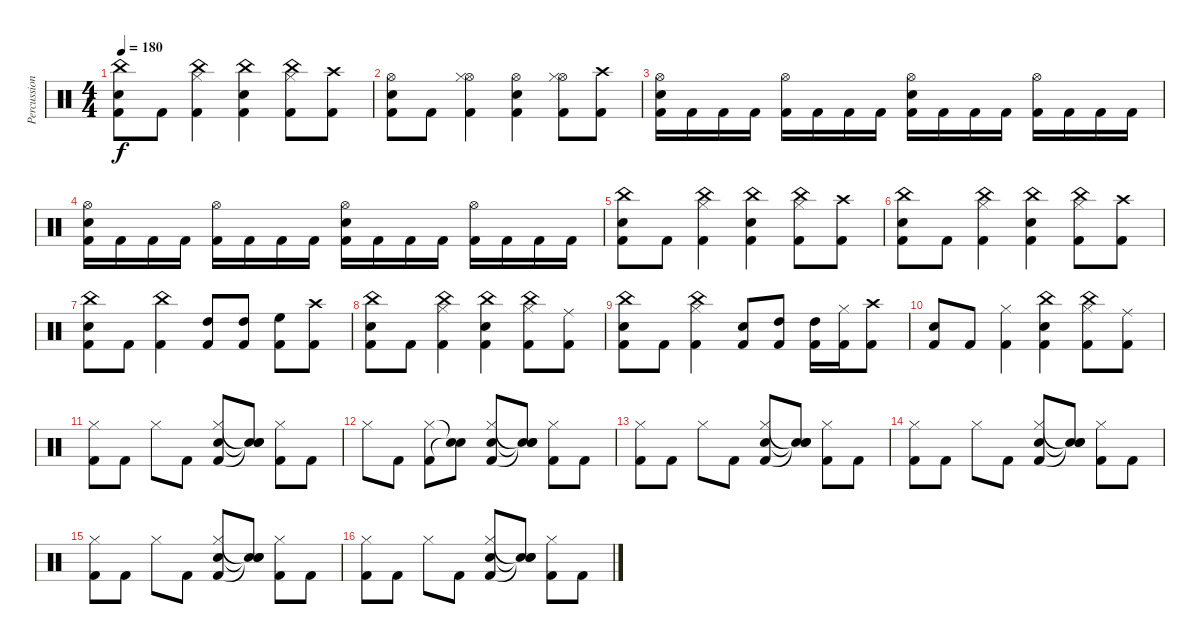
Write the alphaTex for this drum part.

\track ("Percussion" "Percussion") {instrument percussion}
\staff {score}
\articulation defaults
\ts (4 4)
\tempo 180
\clef neutral
\ks c
("China (hit)" "Electric Snare (hit)" "Kick (hit) 2").8{dy f} "Kick (hit) 2".8 ("China (hit)" "Hi-Hat (closed)" "Kick (hit) 2").4 ("China (hit)" "Electric Snare (hit)" "Kick (hit) 2").4 ("China (hit)" "Hi-Hat (closed)" "Kick (hit) 2").8 ("Crash high (hit)" "Kick (hit) 2").8 |
("Hi-Hat (open)" "Electric Snare (hit)" "Kick (hit) 2").8 "Kick (hit) 2".8 ("Hi-Hat (open)" "Hi-Hat (closed)" "Kick (hit) 2").4 ("Hi-Hat (open)" "Electric Snare (hit)" "Kick (hit) 2").4 ("Hi-Hat (open)" "Hi-Hat (closed)" "Kick (hit) 2").8 ("Crash high (hit)" "Kick (hit) 2").8 |
("Hi-Hat (open)" "Electric Snare (hit)" "Kick (hit) 2").16 "Kick (hit) 2".16 "Kick (hit) 2".16 "Kick (hit) 2".16 ("Hi-Hat (open)" "Kick (hit) 2").16 "Kick (hit) 2".16 "Kick (hit) 2".16 "Kick (hit) 2".16 ("Hi-Hat (open)" "Electric Snare (hit)" "Kick (hit) 2").16 "Kick (hit) 2".16 "Kick (hit) 2".16 "Kick (hit) 2".16 ("Hi-Hat (open)" "Kick (hit) 2").16 "Kick (hit) 2".16 "Kick (hit) 2".16 "Kick (hit) 2".16 |
("Hi-Hat (open)" "Electric Snare (hit)" "Kick (hit) 2").16 "Kick (hit) 2".16 "Kick (hit) 2".16 "Kick (hit) 2".16 ("Hi-Hat (open)" "Kick (hit) 2").16 "Kick (hit) 2".16 "Kick (hit) 2".16 "Kick (hit) 2".16 ("Hi-Hat (open)" "Electric Snare (hit)" "Kick (hit) 2").16 "Kick (hit) 2".16 "Kick (hit) 2".16 "Kick (hit) 2".16 ("Hi-Hat (open)" "Kick (hit) 2").16 "Kick (hit) 2".16 "Kick (hit) 2".16 "Kick (hit) 2".16 |
("China (hit)" "Electric Snare (hit)" "Kick (hit) 2").8 "Kick (hit) 2".8 ("China (hit)" "Hi-Hat (closed)" "Kick (hit) 2").4 ("China (hit)" "Electric Snare (hit)" "Kick (hit) 2").4 ("China (hit)" "Hi-Hat (closed)" "Kick (hit) 2").8 ("Crash high (hit)" "Kick (hit) 2").8 |
("China (hit)" "Snare (hit) 2" "Kick (hit) 2").8 "Kick (hit) 2".8 ("China (hit)" "Hi-Hat (closed)" "Kick (hit) 2").4 ("China (hit)" "Snare (hit) 2" "Kick (hit) 2").4 ("China (hit)" "Hi-Hat (closed)" "Kick (hit) 2").8 ("Crash high (hit)" "Kick (hit) 2").8 |
("China (hit)" "Snare (hit) 2" "Kick (hit) 2").8 "Kick (hit) 2".8 ("China (hit)" "Kick (hit) 2").4 ("High Tom (hit)" "Kick (hit) 2").8 ("High Tom (hit)" "Kick (hit) 2").8 ("High Floor Tom (hit)" "Kick (hit) 2").8 ("Crash high (hit)" "Kick (hit) 2").8 |
("China (hit)" "Snare (hit) 2" "Kick (hit) 2").8 "Kick (hit) 2".8 ("China (hit)" "Hi-Hat (closed)" "Kick (hit) 2").4 ("China (hit)" "Snare (hit) 2" "Kick (hit) 2").4 ("China (hit)" "Hi-Hat (closed)" "Kick (hit) 2").8 ("Ride (middle)" "Kick (hit) 2").8 |
("China (hit)" "Snare (hit) 2" "Kick (hit) 2").8 "Kick (hit) 2".8 ("China (hit)" "Hi-Hat (closed)" "Kick (hit) 2").4 ("Snare (hit) 2" "Kick (hit) 2").8 ("High Tom (hit)" "Kick (hit) 2").8 ("High Tom (hit)" "Kick (hit) 2").16 ("Hi-Hat (closed)" "Kick (hit) 2").16 ("Crash high (hit)" "Kick (hit) 2").8 |
("Snare (hit) 2" "Kick (hit) 2").8 "Kick (hit) 2".8 ("Hi-Hat (closed)" "Kick (hit) 2").4 ("China (hit)" "Snare (hit) 2" "Kick (hit) 2").4 ("China (hit)" "Hi-Hat (closed)" "Kick (hit) 2").8 ("Ride (middle)" "Kick (hit) 2").8 |
("Hi-Hat (closed)" "Kick (hit) 2").8 "Kick (hit) 2".8 "Hi-Hat (closed)".8 "Kick (hit) 2".8 ("Hi-Hat (closed)" "Snare (hit) 2" "Kick (hit) 2").8 ("Snare (hit)"{t} "Snare (hit)"{t} "Snare (hit)"{t}).8 ("Hi-Hat (closed)" "Kick (hit) 2").8 "Kick (hit) 2".8 |
"Hi-Hat (closed)".8 "Kick (hit) 2".8 ("Hi-Hat (closed)" "Kick (hit) 2").8 ("Snare (hit)"{t} "Snare (hit)"{t}).8 ("Hi-Hat (closed)" "Snare (hit) 2" "Kick (hit) 2").8 ("Snare (hit)"{t} "Snare (hit)"{t} "Snare (hit)"{t}).8 ("Hi-Hat (closed)" "Kick (hit) 2").8 "Kick (hit) 2".8 |
("Hi-Hat (closed)" "Kick (hit) 2").8 "Kick (hit) 2".8 "Hi-Hat (closed)".8 "Kick (hit) 2".8 ("Hi-Hat (closed)" "Snare (hit) 2" "Kick (hit) 2").8 ("Snare (hit)"{t} "Snare (hit)"{t} "Snare (hit)"{t}).8 ("Hi-Hat (closed)" "Kick (hit) 2").8 "Kick (hit) 2".8 |
("Hi-Hat (closed)" "Kick (hit) 2").8 "Kick (hit) 2".8 "Hi-Hat (closed)".8 "Kick (hit) 2".8 ("Hi-Hat (closed)" "Snare (hit) 2" "Kick (hit) 2").8 ("Snare (hit)"{t} "Snare (hit)"{t} "Snare (hit)"{t}).8 ("Hi-Hat (closed)" "Kick (hit) 2").8 "Kick (hit) 2".8 |
("Hi-Hat (closed)" "Kick (hit) 2").8 "Kick (hit) 2".8 "Hi-Hat (closed)".8 "Kick (hit) 2".8 ("Hi-Hat (closed)" "Snare (hit) 2" "Kick (hit) 2").8 ("Snare (hit)"{t} "Snare (hit)"{t} "Snare (hit)"{t}).8 ("Hi-Hat (closed)" "Kick (hit) 2").8 "Kick (hit) 2".8 |
("Hi-Hat (closed)" "Kick (hit) 2").8 "Kick (hit) 2".8 "Hi-Hat (closed)".8 "Kick (hit) 2".8 ("Hi-Hat (closed)" "Snare (hit) 2" "Kick (hit) 2").8 ("Snare (hit)"{t} "Snare (hit)"{t} "Snare (hit)"{t}).8 ("Hi-Hat (closed)" "Kick (hit) 2").8 "Kick (hit) 2".8
